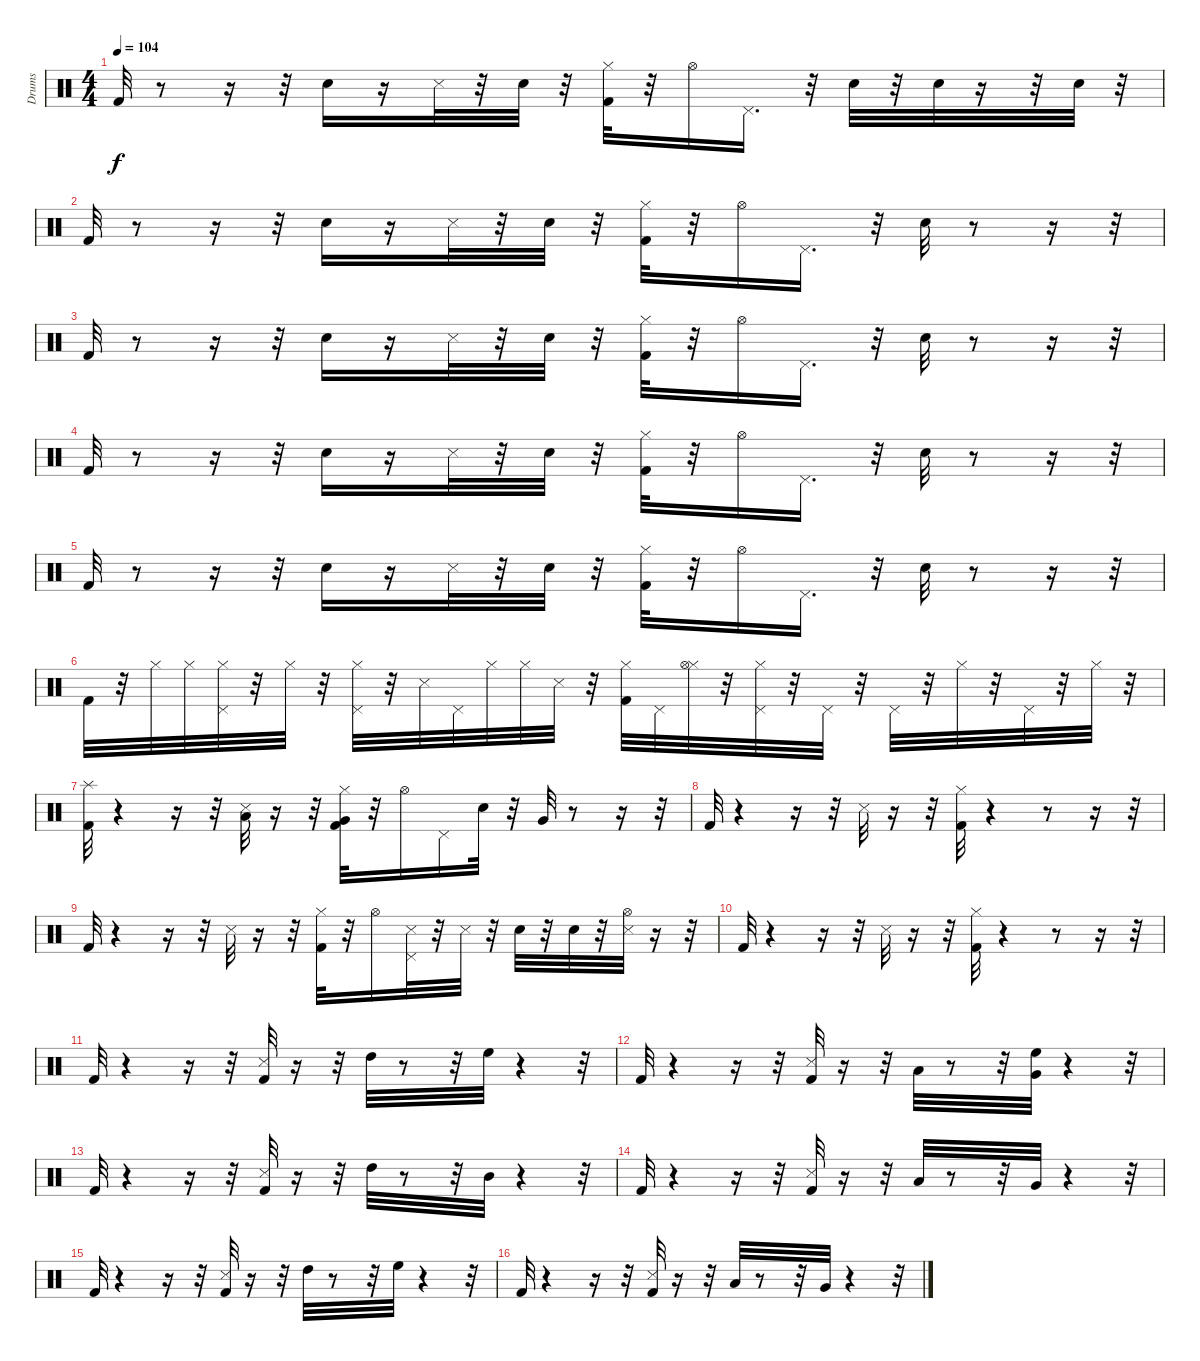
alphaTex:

\track ("Drums" "Drums") {instrument percussion}
\staff {score}
\articulation defaults
\ts (4 4)
\tempo 104
\clef neutral
\ks c "Kick (hit) 2".32{dy f}
r.8 r.16 r.32 "Snare (hit) 2".16 r.16 "Snare (side stick) 3".32 r.32 "Electric Snare (hit)".32 r.32 ("Kick (hit) 2" "Hi-Hat (closed)").32 r.32 "Hi-Hat (open)".16 "Pedal Hi-Hat (hit)".16{d} r.32 "Snare (hit) 2".32 r.32 "Electric Snare (hit)".32 r.16 r.32 "Snare (hit) 2".32 r.32 |
"Kick (hit) 2".32 r.8 r.16 r.32 "Snare (hit) 2".16 r.16 "Snare (side stick) 3".32 r.32 "Electric Snare (hit)".32 r.32 ("Kick (hit) 2" "Hi-Hat (closed)").32 r.32 "Hi-Hat (open)".16 "Pedal Hi-Hat (hit)".16{d} r.32 "Snare (hit) 2".32 r.8 r.16 r.32 |
"Kick (hit) 2".32 r.8 r.16 r.32 "Snare (hit) 2".16 r.16 "Snare (side stick) 3".32 r.32 "Electric Snare (hit)".32 r.32 ("Kick (hit) 2" "Hi-Hat (closed)").32 r.32 "Hi-Hat (open)".16 "Pedal Hi-Hat (hit)".16{d} r.32 "Snare (hit) 2".32 r.8 r.16 r.32 |
"Kick (hit) 2".32 r.8 r.16 r.32 "Snare (hit) 2".16 r.16 "Snare (side stick) 3".32 r.32 "Electric Snare (hit)".32 r.32 ("Kick (hit) 2" "Hi-Hat (closed)").32 r.32 "Hi-Hat (open)".16 "Pedal Hi-Hat (hit)".16{d} r.32 "Snare (hit) 2".32 r.8 r.16 r.32 |
"Kick (hit) 2".32 r.8 r.16 r.32 "Snare (hit) 2".16 r.16 "Snare (side stick) 3".32 r.32 "Electric Snare (hit)".32 r.32 ("Kick (hit) 2" "Hi-Hat (closed)").32 r.32 "Hi-Hat (open)".16 "Pedal Hi-Hat (hit)".16{d} r.32 "Snare (hit) 2".32 r.8 r.16 r.32 |
"Kick (hit) 2".32 r.32 "Hi-Hat (closed)".32 "Hi-Hat (closed)".32 ("Pedal Hi-Hat (hit)" "Hi-Hat (closed)").32 r.32 "Hi-Hat (closed)".32 r.32 ("Pedal Hi-Hat (hit)" "Hi-Hat (closed)").32 r.32 "Snare (side stick) 3".32 "Pedal Hi-Hat (hit)".32 "Hi-Hat (closed)".32 "Hi-Hat (closed)".32 "Snare (side stick) 3".32 r.32 ("Kick (hit) 2" "Hi-Hat (closed)").32 "Pedal Hi-Hat (hit)".32 ("Hi-Hat (closed)" "Hi-Hat (open)").32 r.32 ("Hi-Hat (closed)" "Pedal Hi-Hat (hit)").32 r.32 "Pedal Hi-Hat (hit)".32 r.32 "Pedal Hi-Hat (hit)".32 r.32 "Hi-Hat (closed)".32 r.32 "Pedal Hi-Hat (hit)".32 r.32 "Hi-Hat (closed)".32 r.32 |
("Kick (hit) 2" "Splash (hit)").32 r.4 r.16 r.32 ("Low Tom (hit)" "Snare (side stick) 3").32 r.16 r.32 ("Kick (hit) 2" "Very Low Tom (hit)" "Hi-Hat (closed)").32 r.32 "Hi-Hat (open)".16 "Pedal Hi-Hat (hit)".16 "Electric Snare (hit)".32 r.32 "Very Low Tom (hit)".32 r.8 r.16 r.32 |
"Kick (hit) 2".32 r.4 r.16 r.32 "Snare (side stick) 3".32 r.16 r.32 ("Kick (hit) 2" "Hi-Hat (closed)").32 r.4 r.8 r.16 r.32 |
"Kick (hit) 2".32 r.4 r.16 r.32 "Snare (side stick) 3".32 r.16 r.32 ("Kick (hit) 2" "Hi-Hat (closed)").32 r.32 "Hi-Hat (open)".16 ("Snare (side stick) 3" "Pedal Hi-Hat (hit)").32 r.32 "Snare (side stick) 3".32 r.32 "Electric Snare (hit)".32 r.32 "Electric Snare (hit)".32 r.32 ("Snare (side stick) 3" "Hi-Hat (open)").32 r.16 r.32 |
"Kick (hit) 2".32 r.4 r.16 r.32 "Snare (side stick) 3".32 r.16 r.32 ("Kick (hit) 2" "Hi-Hat (closed)").32 r.4 r.8 r.16 r.32 |
"Kick (hit) 2".32 r.4 r.16 r.32 ("Kick (hit) 2" "Snare (side stick) 3").32 r.16 r.32 "High Tom (hit)".32 r.8 r.32 "High Floor Tom (hit)".32 r.4 r.32 |
"Kick (hit) 2".32 r.4 r.16 r.32 ("Kick (hit) 2" "Snare (side stick) 3").32 r.16 r.32 "Low Tom (hit)".32 r.8 r.32 ("High Floor Tom (hit)" "Very Low Tom (hit)").32 r.4 r.32 |
"Kick (hit) 2".32 r.4 r.16 r.32 ("Kick (hit) 2" "Snare (side stick) 3").32 r.16 r.32 "High Tom (hit)".32 r.8 r.32 "Mid Tom (hit)".32 r.4 r.32 |
"Kick (hit) 2".32 r.4 r.16 r.32 ("Kick (hit) 2" "Snare (side stick) 3").32 r.16 r.32 "Low Tom (hit)".32 r.8 r.32 "Very Low Tom (hit)".32 r.4 r.32 |
"Kick (hit) 2".32 r.4 r.16 r.32 ("Kick (hit) 2" "Snare (side stick) 3").32 r.16 r.32 "High Tom (hit)".32 r.8 r.32 "High Floor Tom (hit)".32 r.4 r.32 |
"Kick (hit) 2".32 r.4 r.16 r.32 ("Kick (hit) 2" "Snare (side stick) 3").32 r.16 r.32 "Low Tom (hit)".32 r.8 r.32 "Very Low Tom (hit)".32 r.4 r.32
